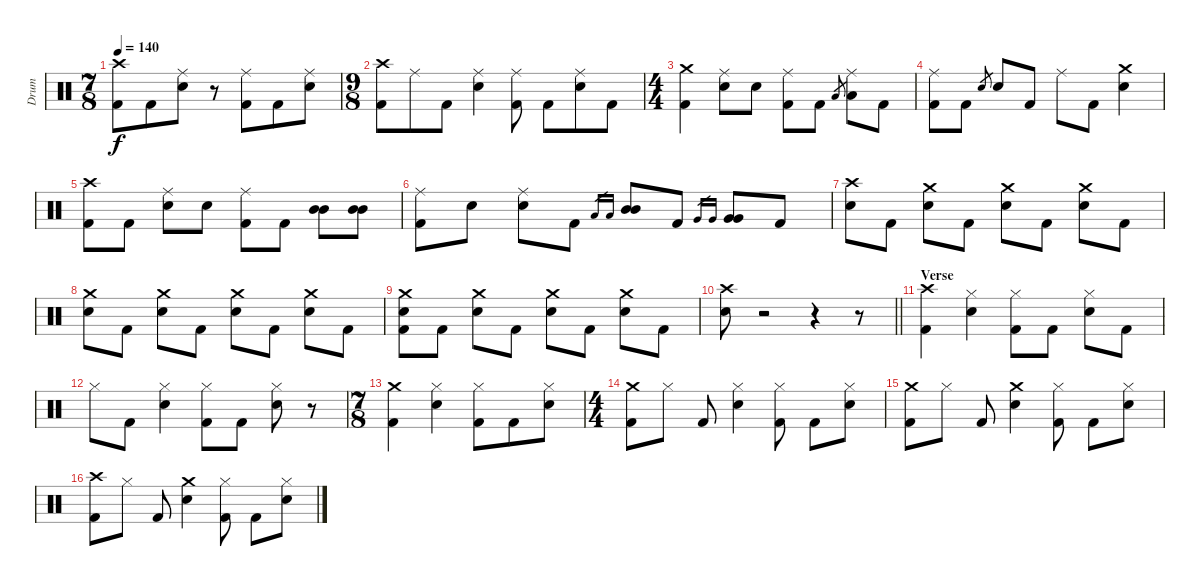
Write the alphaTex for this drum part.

\track ("Drum" "Drum") {instrument percussion}
\staff {score}
\articulation defaults
\ts (7 8)
\tempo 140
\clef neutral
\ks c
("Crash high (hit)" "Kick (hit) 2").8{dy f} "Kick (hit) 2".8 ("Ride (middle)" "Electric Snare (hit)").8 r.8 ("Ride (middle)" "Kick (hit) 2").8 "Kick (hit) 2".8 ("Ride (middle)" "Electric Snare (hit)").8 |
\ts (9 8)
("Crash high (hit)" "Kick (hit) 2").8 "Ride (middle)".8 "Kick (hit) 2".8 ("Ride (middle)" "Electric Snare (hit)").4 ("Ride (middle)" "Kick (hit) 2").8 "Kick (hit) 2".8 ("Ride (middle)" "Electric Snare (hit)").8 "Kick (hit) 2".8 |
\ts (4 4)
("Crash medium (hit)" "Kick (hit) 2").4 ("Ride (middle)" "Electric Snare (hit)").8 "Electric Snare (hit)".8 ("Ride (middle)" "Kick (hit) 2").8 "Kick (hit) 2".8 "Low Tom (hit)".8{gr} ("Ride (middle)" "Low Tom (hit)").8 "Kick (hit) 2".8 |
("Ride (middle)" "Kick (hit) 2").8 "Kick (hit) 2".8 "Electric Snare (hit)".8{gr} "Electric Snare (hit)".8 "Kick (hit) 2".8 "Ride (middle)".8 "Kick (hit) 2".8 ("Crash medium (hit)" "Electric Snare (hit)").4 |
("Crash high (hit)" "Kick (hit) 2").8 "Kick (hit) 2".8 ("Ride (middle)" "Electric Snare (hit)").8 "Electric Snare (hit)".8 ("Ride (middle)" "Kick (hit) 2").8 "Kick (hit) 2".8 ("Mid Tom (hit)" "Mid Tom (hit)").8 ("Mid Tom (hit)" "Mid Tom (hit)").8 |
("Ride (middle)" "Kick (hit) 2").8 "Electric Snare (hit)".8 ("Ride (middle)" "Electric Snare (hit)").8 "Kick (hit) 2".8 "Low Tom (hit)".16{gr} "Low Tom (hit)".16{gr} ("Mid Tom (hit)" "Mid Tom (hit)").8 "Kick (hit) 2".8 "Very Low Tom (hit)".16{gr} "Very Low Tom (hit)".16{gr} ("Very Low Tom (hit)" "Very Low Tom (hit)").8 "Kick (hit) 2".8 |
("Crash high (hit)" "Electric Snare (hit)").8 "Kick (hit) 2".8 ("Crash medium (hit)" "Electric Snare (hit)").8 "Kick (hit) 2".8 ("Crash medium (hit)" "Electric Snare (hit)").8 "Kick (hit) 2".8 ("Crash medium (hit)" "Electric Snare (hit)").8 "Kick (hit) 2".8 |
("Crash medium (hit)" "Electric Snare (hit)").8 "Kick (hit) 2".8 ("Crash medium (hit)" "Electric Snare (hit)").8 "Kick (hit) 2".8 ("Crash medium (hit)" "Electric Snare (hit)").8 "Kick (hit) 2".8 ("Crash medium (hit)" "Electric Snare (hit)").8 "Kick (hit) 2".8 |
("Crash medium (hit)" "Kick (hit) 2" "Electric Snare (hit)").8 "Kick (hit) 2".8 ("Crash medium (hit)" "Electric Snare (hit)").8 "Kick (hit) 2".8 ("Crash medium (hit)" "Electric Snare (hit)").8 "Kick (hit) 2".8 ("Crash medium (hit)" "Electric Snare (hit)").8 "Kick (hit) 2".8 |
\barLineRight lightlight
("Crash high (hit)" "Electric Snare (hit)").8 r.2 r.4 r.8 |
\section ("" "Verse")
("Crash high (hit)" "Kick (hit) 2").4 ("Hi-Hat (closed)" "Electric Snare (hit)").4 ("Hi-Hat (closed)" "Kick (hit) 2").8 "Kick (hit) 2".8 ("Hi-Hat (closed)" "Electric Snare (hit)").8 "Kick (hit) 2".8 |
"Hi-Hat (closed)".8 "Kick (hit) 2".8 ("Hi-Hat (closed)" "Electric Snare (hit)").4 ("Hi-Hat (closed)" "Kick (hit) 2").8 "Kick (hit) 2".8 ("Hi-Hat (closed)" "Electric Snare (hit)").8 r.8 |
\ts (7 8)
("Crash medium (hit)" "Kick (hit) 2").4 ("Hi-Hat (closed)" "Electric Snare (hit)").4 ("Hi-Hat (closed)" "Kick (hit) 2").8 "Kick (hit) 2".8 ("Hi-Hat (closed)" "Electric Snare (hit)").8 |
\ts (4 4)
("Crash medium (hit)" "Kick (hit) 2").8 "Hi-Hat (closed)".8 "Kick (hit) 2".8 ("Hi-Hat (closed)" "Electric Snare (hit)").4 ("Hi-Hat (closed)" "Kick (hit) 2").8 "Kick (hit) 2".8 ("Hi-Hat (closed)" "Electric Snare (hit)").8 |
("Crash medium (hit)" "Kick (hit) 2").8 "Hi-Hat (closed)".8 "Kick (hit) 2".8 ("Crash medium (hit)" "Electric Snare (hit)").4 ("Hi-Hat (closed)" "Kick (hit) 2").8 "Kick (hit) 2".8 ("Hi-Hat (closed)" "Electric Snare (hit)").8 |
("Crash high (hit)" "Kick (hit) 2").8 "Hi-Hat (closed)".8 "Kick (hit) 2".8 ("Crash medium (hit)" "Electric Snare (hit)").4 ("Hi-Hat (closed)" "Kick (hit) 2").8 "Kick (hit) 2".8 ("Hi-Hat (closed)" "Electric Snare (hit)").8
